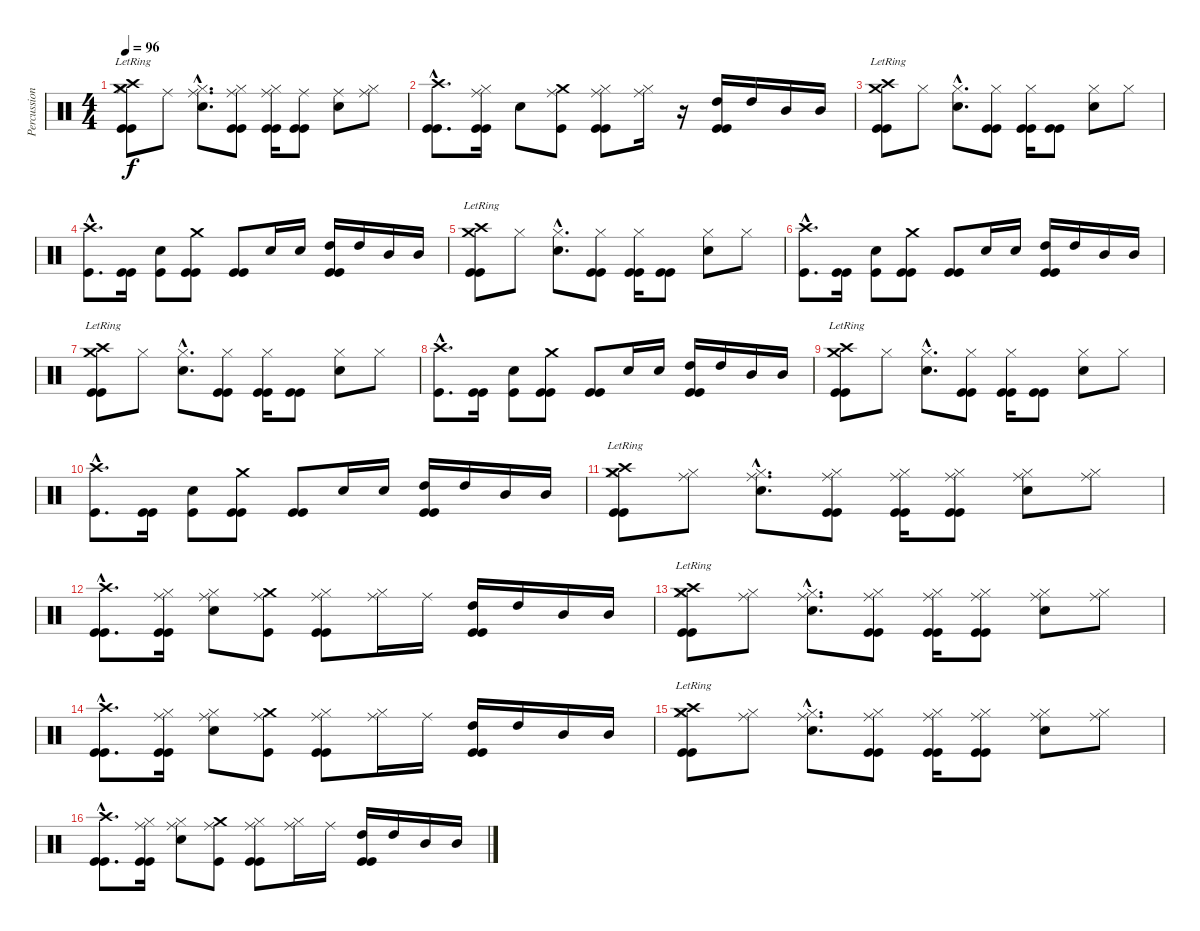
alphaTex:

\track ("Percussion" "Percussion") {instrument percussion}
\staff {score}
\articulation defaults
\ts (4 4)
\tempo 96
\clef neutral
\ks c
("Hi-Hat (closed)" "Kick (hit)" "Kick (hit)" "Crash high (hit)"{lr} "Crash medium (hit)"{lr}).8{dy f} "Ride (middle)".8 ("Hi-Hat (closed)"{hac} "Snare (hit) 2"{hac} "Ride (middle)"{hac}).8{d} ("Hi-Hat (closed)" "Kick (hit)" "Kick (hit)" "Ride (middle)").8 ("Hi-Hat (closed)" "Kick (hit)" "Kick (hit)" "Ride (middle)").16 ("Kick (hit)" "Kick (hit)" "Ride (middle)").8 ("Snare (hit) 2" "Ride (middle)").8 ("Hi-Hat (closed)" "Ride (middle)").8 |
("Kick (hit)"{hac} "Kick (hit)"{hac} "Crash high (hit)"{hac}).8{d} ("Hi-Hat (closed)" "Kick (hit)" "Kick (hit)" "Ride (middle)").16 "Snare (hit) 2".8 ("Crash medium (hit)" "Kick (hit)" "Ride (middle)").8 ("Hi-Hat (closed)" "Kick (hit)" "Kick (hit)" "Ride (middle)").8 ("Hi-Hat (closed)" "Ride (middle)").16 r.16 ("Kick (hit)" "Kick (hit)" "High Tom (hit)").16 "High Tom (hit)".16 "Mid Tom (hit)".16 "Mid Tom (hit)".16 |
("Kick (hit)" "Kick (hit)" "Crash high (hit)"{lr} "Crash medium (hit)"{lr}).8 "Hi-Hat (closed)".8 ("Snare (hit) 2"{hac} "Hi-Hat (closed)"{hac}).8{d} ("Kick (hit)" "Kick (hit)" "Hi-Hat (closed)").8 ("Kick (hit)" "Kick (hit)" "Hi-Hat (closed)").16 ("Kick (hit)" "Kick (hit)").8 ("Snare (hit) 2" "Hi-Hat (closed)").8 "Hi-Hat (closed)".8 |
("Crash high (hit)"{hac} "Kick (hit)"{hac}).8{d} ("Kick (hit)" "Kick (hit)").16 ("Snare (hit) 2" "Kick (hit)").8 ("Crash medium (hit)" "Kick (hit)" "Kick (hit)").8 ("Kick (hit)" "Kick (hit)").8 "Snare (hit) 2".16 "Snare (hit) 2".16 ("Kick (hit)" "Kick (hit)" "High Tom (hit)").16 "High Tom (hit)".16 "Mid Tom (hit)".16 "Mid Tom (hit)".16 |
("Kick (hit)" "Kick (hit)" "Crash high (hit)"{lr} "Crash medium (hit)"{lr}).8 "Hi-Hat (closed)".8 ("Snare (hit) 2"{hac} "Hi-Hat (closed)"{hac}).8{d} ("Kick (hit)" "Kick (hit)" "Hi-Hat (closed)").8 ("Kick (hit)" "Kick (hit)" "Hi-Hat (closed)").16 ("Kick (hit)" "Kick (hit)").8 ("Snare (hit) 2" "Hi-Hat (closed)").8 "Hi-Hat (closed)".8 |
("Crash high (hit)"{hac} "Kick (hit)"{hac}).8{d} ("Kick (hit)" "Kick (hit)").16 ("Snare (hit) 2" "Kick (hit)").8 ("Crash medium (hit)" "Kick (hit)" "Kick (hit)").8 ("Kick (hit)" "Kick (hit)").8 "Snare (hit) 2".16 "Snare (hit) 2".16 ("Kick (hit)" "Kick (hit)" "High Tom (hit)").16 "High Tom (hit)".16 "Mid Tom (hit)".16 "Mid Tom (hit)".16 |
("Kick (hit)" "Kick (hit)" "Crash high (hit)"{lr} "Crash medium (hit)"{lr}).8 "Hi-Hat (closed)".8 ("Snare (hit) 2"{hac} "Hi-Hat (closed)"{hac}).8{d} ("Kick (hit)" "Kick (hit)" "Hi-Hat (closed)").8 ("Kick (hit)" "Kick (hit)" "Hi-Hat (closed)").16 ("Kick (hit)" "Kick (hit)").8 ("Snare (hit) 2" "Hi-Hat (closed)").8 "Hi-Hat (closed)".8 |
("Crash high (hit)"{hac} "Kick (hit)"{hac}).8{d} ("Kick (hit)" "Kick (hit)").16 ("Snare (hit) 2" "Kick (hit)").8 ("Crash medium (hit)" "Kick (hit)" "Kick (hit)").8 ("Kick (hit)" "Kick (hit)").8 "Snare (hit) 2".16 "Snare (hit) 2".16 ("Kick (hit)" "Kick (hit)" "High Tom (hit)").16 "High Tom (hit)".16 "Mid Tom (hit)".16 "Mid Tom (hit)".16 |
("Kick (hit)" "Kick (hit)" "Crash high (hit)"{lr} "Crash medium (hit)"{lr}).8 "Hi-Hat (closed)".8 ("Snare (hit) 2"{hac} "Hi-Hat (closed)"{hac}).8{d} ("Kick (hit)" "Kick (hit)" "Hi-Hat (closed)").8 ("Kick (hit)" "Kick (hit)" "Hi-Hat (closed)").16 ("Kick (hit)" "Kick (hit)").8 ("Snare (hit) 2" "Hi-Hat (closed)").8 "Hi-Hat (closed)".8 |
("Crash high (hit)"{hac} "Kick (hit)"{hac}).8{d} ("Kick (hit)" "Kick (hit)").16 ("Snare (hit) 2" "Kick (hit)").8 ("Crash medium (hit)" "Kick (hit)" "Kick (hit)").8 ("Kick (hit)" "Kick (hit)").8 "Snare (hit) 2".16 "Snare (hit) 2".16 ("Kick (hit)" "Kick (hit)" "High Tom (hit)").16 "High Tom (hit)".16 "Mid Tom (hit)".16 "Mid Tom (hit)".16 |
("Hi-Hat (closed)" "Kick (hit)" "Kick (hit)" "Crash high (hit)"{lr} "Crash medium (hit)"{lr}).8 ("Hi-Hat (closed)" "Ride (middle)").8 ("Hi-Hat (closed)"{hac} "Snare (hit) 2"{hac} "Ride (middle)"{hac}).8{d} ("Hi-Hat (closed)" "Kick (hit)" "Kick (hit)" "Ride (middle)").8 ("Hi-Hat (closed)" "Kick (hit)" "Kick (hit)" "Ride (middle)").16 ("Hi-Hat (closed)" "Kick (hit)" "Kick (hit)" "Ride (middle)").8 ("Hi-Hat (closed)" "Snare (hit) 2" "Ride (middle)").8 ("Hi-Hat (closed)" "Ride (middle)").8 |
("Kick (hit)"{hac} "Kick (hit)"{hac} "Crash high (hit)"{hac}).8{d} ("Hi-Hat (closed)" "Kick (hit)" "Kick (hit)" "Ride (middle)").16 ("Hi-Hat (closed)" "Snare (hit) 2" "Ride (middle)").8 ("Crash medium (hit)" "Kick (hit)" "Ride (middle)").8 ("Hi-Hat (closed)" "Kick (hit)" "Kick (hit)" "Ride (middle)").8 ("Hi-Hat (closed)" "Ride (middle)").16 "Ride (middle)".16 ("Kick (hit)" "Kick (hit)" "High Tom (hit)").16 "High Tom (hit)".16 "Mid Tom (hit)".16 "Mid Tom (hit)".16 |
("Hi-Hat (closed)" "Kick (hit)" "Kick (hit)" "Crash high (hit)"{lr} "Crash medium (hit)"{lr}).8 ("Hi-Hat (closed)" "Ride (middle)").8 ("Hi-Hat (closed)"{hac} "Snare (hit) 2"{hac} "Ride (middle)"{hac}).8{d} ("Hi-Hat (closed)" "Kick (hit)" "Kick (hit)" "Ride (middle)").8 ("Hi-Hat (closed)" "Kick (hit)" "Kick (hit)" "Ride (middle)").16 ("Hi-Hat (closed)" "Kick (hit)" "Kick (hit)" "Ride (middle)").8 ("Hi-Hat (closed)" "Snare (hit) 2" "Ride (middle)").8 ("Hi-Hat (closed)" "Ride (middle)").8 |
("Kick (hit)"{hac} "Kick (hit)"{hac} "Crash high (hit)"{hac}).8{d} ("Hi-Hat (closed)" "Kick (hit)" "Kick (hit)" "Ride (middle)").16 ("Hi-Hat (closed)" "Snare (hit) 2" "Ride (middle)").8 ("Crash medium (hit)" "Kick (hit)" "Ride (middle)").8 ("Hi-Hat (closed)" "Kick (hit)" "Kick (hit)" "Ride (middle)").8 ("Hi-Hat (closed)" "Ride (middle)").16 "Ride (middle)".16 ("Kick (hit)" "Kick (hit)" "High Tom (hit)").16 "High Tom (hit)".16 "Mid Tom (hit)".16 "Mid Tom (hit)".16 |
("Hi-Hat (closed)" "Kick (hit)" "Kick (hit)" "Crash high (hit)"{lr} "Crash medium (hit)"{lr}).8 ("Hi-Hat (closed)" "Ride (middle)").8 ("Hi-Hat (closed)"{hac} "Snare (hit) 2"{hac} "Ride (middle)"{hac}).8{d} ("Hi-Hat (closed)" "Kick (hit)" "Kick (hit)" "Ride (middle)").8 ("Hi-Hat (closed)" "Kick (hit)" "Kick (hit)" "Ride (middle)").16 ("Hi-Hat (closed)" "Kick (hit)" "Kick (hit)" "Ride (middle)").8 ("Hi-Hat (closed)" "Snare (hit) 2" "Ride (middle)").8 ("Hi-Hat (closed)" "Ride (middle)").8 |
("Kick (hit)"{hac} "Kick (hit)"{hac} "Crash high (hit)"{hac}).8{d} ("Hi-Hat (closed)" "Kick (hit)" "Kick (hit)" "Ride (middle)").16 ("Hi-Hat (closed)" "Snare (hit) 2" "Ride (middle)").8 ("Crash medium (hit)" "Kick (hit)" "Ride (middle)").8 ("Hi-Hat (closed)" "Kick (hit)" "Kick (hit)" "Ride (middle)").8 ("Hi-Hat (closed)" "Ride (middle)").16 "Ride (middle)".16 ("Kick (hit)" "Kick (hit)" "High Tom (hit)").16 "High Tom (hit)".16 "Mid Tom (hit)".16 "Mid Tom (hit)".16
